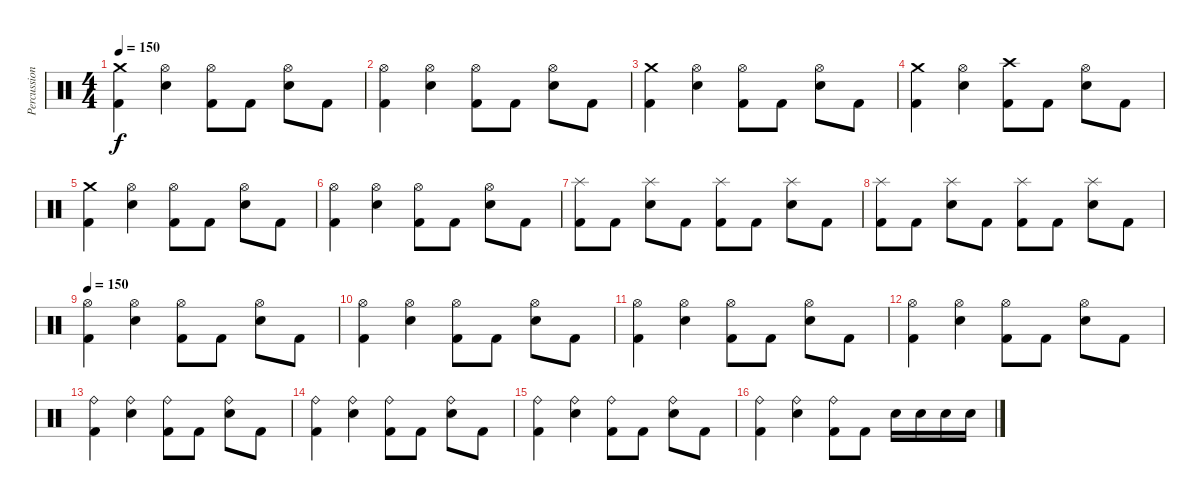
\track ("Percussion" "Percussion") {instrument percussion}
\staff {score}
\articulation defaults
\ts (4 4)
\tempo 150
\clef neutral
\ks c
("Kick (hit) 2" "Crash medium (hit)").4{dy f} ("Snare (hit) 2" "Hi-Hat (open)").4 ("Kick (hit) 2" "Hi-Hat (open)").8 "Kick (hit) 2".8 ("Snare (hit) 2" "Hi-Hat (open)").8 "Kick (hit) 2".8 |
("Kick (hit) 2" "Hi-Hat (open)").4 ("Snare (hit) 2" "Hi-Hat (open)").4 ("Kick (hit) 2" "Hi-Hat (open)").8 "Kick (hit) 2".8 ("Snare (hit) 2" "Hi-Hat (open)").8 "Kick (hit) 2".8 |
("Kick (hit) 2" "Crash medium (hit)").4 ("Snare (hit) 2" "Hi-Hat (open)").4 ("Kick (hit) 2" "Hi-Hat (open)").8 "Kick (hit) 2".8 ("Snare (hit) 2" "Hi-Hat (open)").8 "Kick (hit) 2".8 |
("Kick (hit) 2" "Crash medium (hit)").4 ("Snare (hit) 2" "Hi-Hat (open)").4 ("Kick (hit) 2" "Crash high (hit)").8 "Kick (hit) 2".8 ("Snare (hit) 2" "Hi-Hat (open)").8 "Kick (hit) 2".8 |
("Kick (hit) 2" "Crash medium (hit)").4 ("Snare (hit) 2" "Hi-Hat (open)").4 ("Kick (hit) 2" "Hi-Hat (open)").8 "Kick (hit) 2".8 ("Snare (hit) 2" "Hi-Hat (open)").8 "Kick (hit) 2".8 |
("Kick (hit) 2" "Hi-Hat (open)").4 ("Snare (hit) 2" "Hi-Hat (open)").4 ("Kick (hit) 2" "Hi-Hat (open)").8 "Kick (hit) 2".8 ("Snare (hit) 2" "Hi-Hat (open)").8 "Kick (hit) 2".8 |
("Kick (hit) 2" "Splash (hit)").8 "Kick (hit) 2".8 ("Snare (hit) 2" "Splash (hit)").8 "Kick (hit) 2".8 ("Kick (hit) 2" "Splash (hit)").8 "Kick (hit) 2".8 ("Snare (hit) 2" "Splash (hit)").8 "Kick (hit) 2".8 |
("Kick (hit) 2" "Splash (hit)").8 "Kick (hit) 2".8 ("Snare (hit) 2" "Splash (hit)").8 "Kick (hit) 2".8 ("Kick (hit) 2" "Splash (hit)").8 "Kick (hit) 2".8 ("Snare (hit) 2" "Splash (hit)").8 "Kick (hit) 2".8 |
\tempo 150
("Kick (hit) 2" "Hi-Hat (open)").4 ("Snare (hit) 2" "Hi-Hat (open)").4 ("Kick (hit) 2" "Hi-Hat (open)").8 "Kick (hit) 2".8 ("Snare (hit) 2" "Hi-Hat (open)").8 "Kick (hit) 2".8 |
("Kick (hit) 2" "Hi-Hat (open)").4 ("Snare (hit) 2" "Hi-Hat (open)").4 ("Kick (hit) 2" "Hi-Hat (open)").8 "Kick (hit) 2".8 ("Snare (hit) 2" "Hi-Hat (open)").8 "Kick (hit) 2".8 |
("Kick (hit) 2" "Hi-Hat (open)").4 ("Snare (hit) 2" "Hi-Hat (open)").4 ("Kick (hit) 2" "Hi-Hat (open)").8 "Kick (hit) 2".8 ("Snare (hit) 2" "Hi-Hat (open)").8 "Kick (hit) 2".8 |
("Kick (hit) 2" "Hi-Hat (open)").4 ("Snare (hit) 2" "Hi-Hat (open)").4 ("Kick (hit) 2" "Hi-Hat (open)").8 "Kick (hit) 2".8 ("Snare (hit) 2" "Hi-Hat (open)").8 "Kick (hit) 2".8 |
("Kick (hit) 2" "Ride (bell)").4 ("Snare (hit) 2" "Ride (bell)").4 ("Kick (hit) 2" "Ride (bell)").8 "Kick (hit) 2".8 ("Snare (hit) 2" "Ride (bell)").8 "Kick (hit) 2".8 |
("Kick (hit) 2" "Ride (bell)").4 ("Snare (hit) 2" "Ride (bell)").4 ("Kick (hit) 2" "Ride (bell)").8 "Kick (hit) 2".8 ("Snare (hit) 2" "Ride (bell)").8 "Kick (hit) 2".8 |
("Kick (hit) 2" "Ride (bell)").4 ("Snare (hit) 2" "Ride (bell)").4 ("Kick (hit) 2" "Ride (bell)").8 "Kick (hit) 2".8 ("Snare (hit) 2" "Ride (bell)").8 "Kick (hit) 2".8 |
("Kick (hit) 2" "Ride (bell)").4 ("Snare (hit) 2" "Ride (bell)").4 ("Kick (hit) 2" "Ride (bell)").8 "Kick (hit) 2".8 "Snare (hit) 2".16 "Snare (hit) 2".16 "Snare (hit) 2".16 "Snare (hit) 2".16
